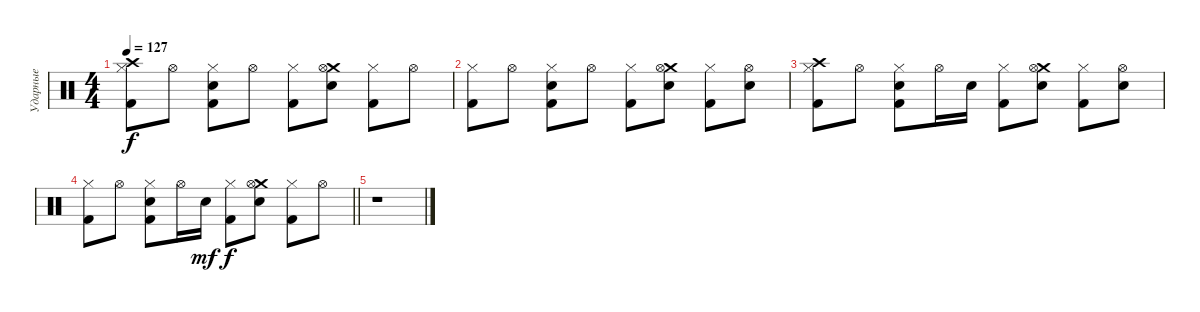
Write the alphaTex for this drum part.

\track ("Ударные" "Ударные") {instrument percussion}
\staff {score}
\articulation defaults
\ts (4 4)
\tempo 127
\clef neutral
\ks c
("Crash high (hit)" "Hi-Hat (closed)" "Kick (hit) 2").8{dy f} "Hi-Hat (open)".8 ("Hi-Hat (closed)" "Electric Snare (hit)" "Kick (hit) 2").8 "Hi-Hat (open)".8 ("Hi-Hat (closed)" "Kick (hit) 2").8 ("Crash medium (hit)" "Hi-Hat (open)" "Electric Snare (hit)").8 ("Hi-Hat (closed)" "Kick (hit) 2").8 "Hi-Hat (open)".8 |
("Hi-Hat (closed)" "Kick (hit) 2").8 "Hi-Hat (open)".8 ("Hi-Hat (closed)" "Electric Snare (hit)" "Kick (hit) 2").8 "Hi-Hat (open)".8 ("Hi-Hat (closed)" "Kick (hit) 2").8 ("Crash medium (hit)" "Hi-Hat (open)" "Electric Snare (hit)").8 ("Hi-Hat (closed)" "Kick (hit) 2").8 ("Hi-Hat (open)" "Electric Snare (hit)").8 |
("Crash high (hit)" "Hi-Hat (closed)" "Kick (hit) 2").8 "Hi-Hat (open)".8 ("Hi-Hat (closed)" "Electric Snare (hit)" "Kick (hit) 2").8 "Hi-Hat (open)".16 "Electric Snare (hit)".16 ("Hi-Hat (closed)" "Kick (hit) 2").8 ("Crash medium (hit)" "Hi-Hat (open)" "Electric Snare (hit)").8 ("Hi-Hat (closed)" "Kick (hit) 2").8 ("Hi-Hat (open)" "Electric Snare (hit)").8 |
\barLineRight lightlight
("Hi-Hat (closed)" "Kick (hit) 2").8 "Hi-Hat (open)".8 ("Hi-Hat (closed)" "Electric Snare (hit)" "Kick (hit) 2").8 "Hi-Hat (open)".16 "Electric Snare (hit)".16{dy mf} ("Hi-Hat (closed)" "Kick (hit) 2").8{dy f} ("Crash medium (hit)" "Hi-Hat (open)" "Electric Snare (hit)").8 ("Hi-Hat (closed)" "Kick (hit) 2").8 "Hi-Hat (open)".8 |
r.1
